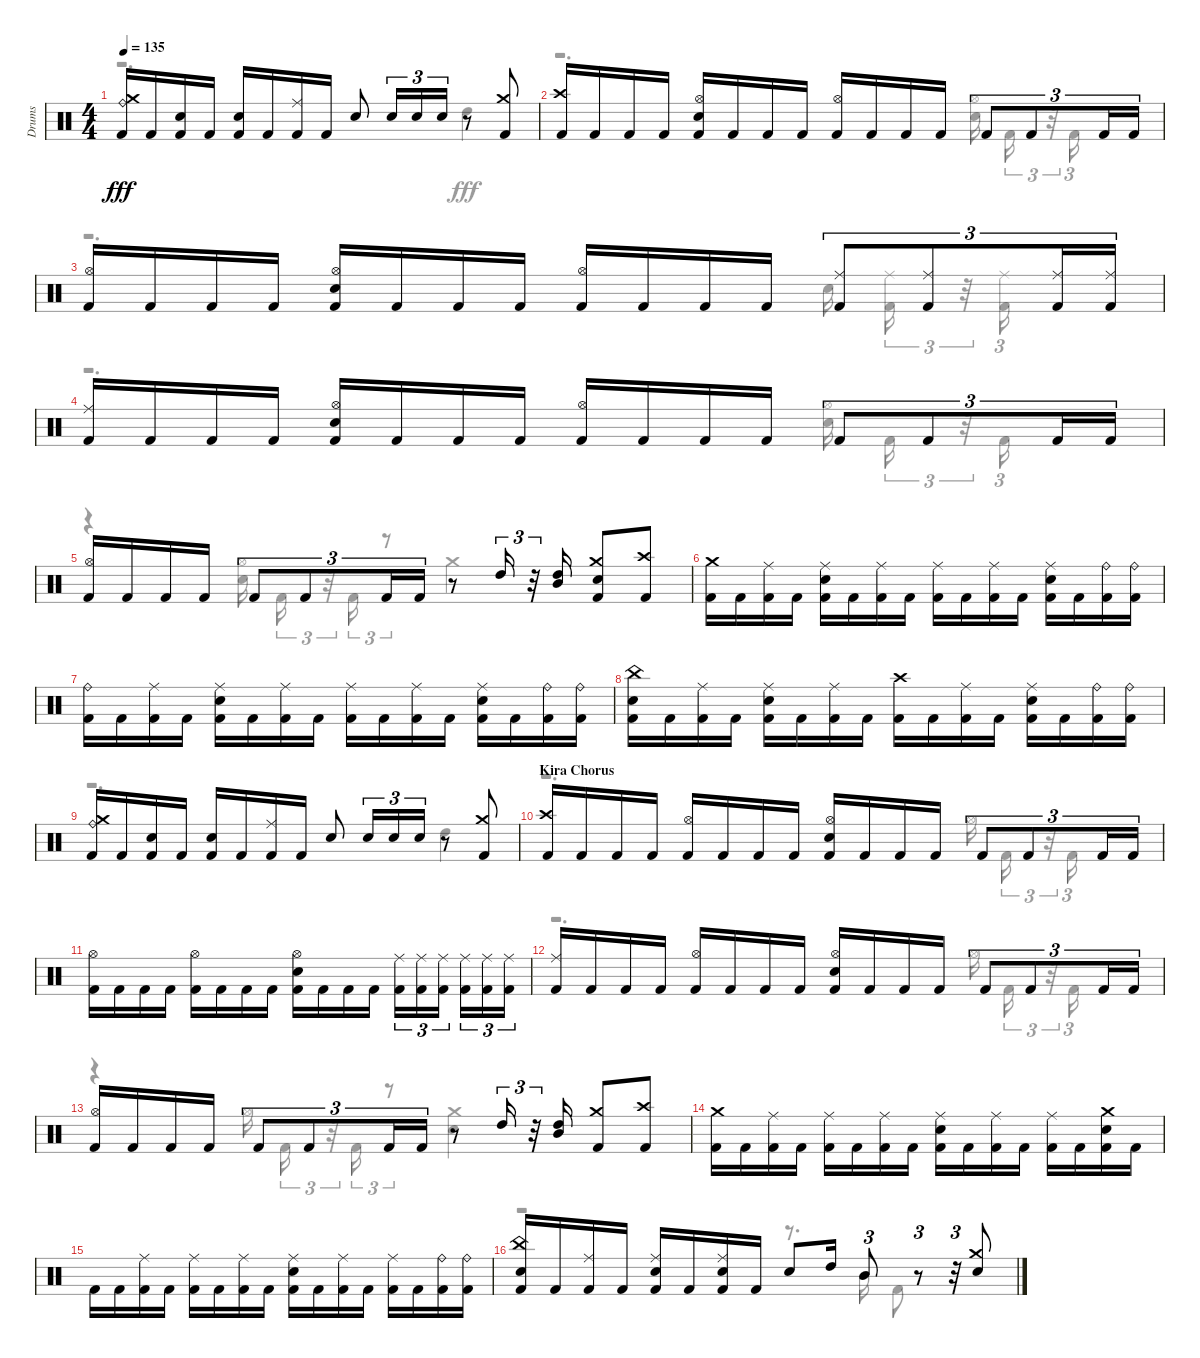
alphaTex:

\track ("Drums" "Drums") {instrument percussion}
\staff {score}
\articulation defaults
\voice
\ts (4 4)
\tempo 135
\clef neutral
\ks aminor
("Kick (hit) 2" "Ride (bell)" "Crash medium (hit)").16{dy fff} "Kick (hit) 2".16 ("Kick (hit) 2" "Snare (hit) 2").16 "Kick (hit) 2".16 ("Kick (hit) 2" "Snare (hit) 2").16 "Kick (hit) 2".16 ("Ride (middle)" "Kick (hit) 2").16 "Kick (hit) 2".16 "Snare (hit) 2".8 "Snare (hit) 2".16{tu (3 2)} "Snare (hit) 2".16{tu (3 2)} "Snare (hit) 2".16{tu (3 2)} r.8 ("Kick (hit) 2" "Crash medium (hit)").8 |
("Crash high (hit)" "Kick (hit) 2").16 "Kick (hit) 2".16 "Kick (hit) 2".16 "Kick (hit) 2".16 ("Hi-Hat (open)" "Snare (hit) 2" "Kick (hit) 2").16 "Kick (hit) 2".16 "Kick (hit) 2".16 "Kick (hit) 2".16 ("Hi-Hat (open)" "Kick (hit) 2").16 "Kick (hit) 2".16 "Kick (hit) 2".16 "Kick (hit) 2".16 "Kick (hit) 2".8{tu (3 2)} "Kick (hit) 2".8{tu (3 2)} "Kick (hit) 2".16{tu (3 2)} "Kick (hit) 2".16{tu (3 2)} |
("Kick (hit) 2" "Hi-Hat (open)").16 "Kick (hit) 2".16 "Kick (hit) 2".16 "Kick (hit) 2".16 ("Kick (hit) 2" "Snare (hit) 2" "Hi-Hat (open)").16 "Kick (hit) 2".16 "Kick (hit) 2".16 "Kick (hit) 2".16 ("Kick (hit) 2" "Hi-Hat (open)").16 "Kick (hit) 2".16 "Kick (hit) 2".16 "Kick (hit) 2".16 ("Ride (middle)" "Kick (hit) 2").8{tu (3 2)} ("Ride (middle)" "Kick (hit) 2").8{tu (3 2)} ("Kick (hit) 2" "Ride (middle)").16{tu (3 2)} ("Kick (hit) 2" "Ride (middle)").16{tu (3 2)} |
("Ride (middle)" "Kick (hit) 2").16 "Kick (hit) 2".16 "Kick (hit) 2".16 "Kick (hit) 2".16 ("Kick (hit) 2" "Snare (hit) 2" "Hi-Hat (open)").16 "Kick (hit) 2".16 "Kick (hit) 2".16 "Kick (hit) 2".16 ("Kick (hit) 2" "Hi-Hat (open)").16 "Kick (hit) 2".16 "Kick (hit) 2".16 "Kick (hit) 2".16 "Kick (hit) 2".8{tu (3 2)} "Kick (hit) 2".8{tu (3 2)} "Kick (hit) 2".16{tu (3 2)} "Kick (hit) 2".16{tu (3 2)} |
("Hi-Hat (open)" "Kick (hit) 2").16 "Kick (hit) 2".16 "Kick (hit) 2".16 "Kick (hit) 2".16 "Kick (hit) 2".8{tu (3 2)} "Kick (hit) 2".8{tu (3 2)} "Kick (hit) 2".16{tu (3 2)} "Kick (hit) 2".16{tu (3 2)} r.8 "High Tom (hit)".16{tu (3 2)} r.32{tu (3 2)} ("High Tom (hit)" "Mid Tom (hit)").16 ("Crash medium (hit)" "Snare (hit) 2" "Kick (hit) 2").8 ("Crash high (hit)" "Kick (hit) 2").8 |
("Kick (hit) 2" "Crash medium (hit)").16 "Kick (hit) 2".16 ("Ride (middle)" "Kick (hit) 2").16 "Kick (hit) 2".16 ("Ride (middle)" "Kick (hit) 2" "Snare (hit) 2").16 "Kick (hit) 2".16 ("Ride (middle)" "Kick (hit) 2").16 "Kick (hit) 2".16 ("Ride (middle)" "Kick (hit) 2").16 "Kick (hit) 2".16 ("Ride (middle)" "Kick (hit) 2").16 "Kick (hit) 2".16 ("Kick (hit) 2" "Ride (middle)" "Snare (hit) 2").16 "Kick (hit) 2".16 ("Ride (bell)" "Kick (hit) 2").16 ("Ride (bell)" "Kick (hit) 2").16 |
("Ride (bell)" "Kick (hit) 2").16 "Kick (hit) 2".16 ("Ride (middle)" "Kick (hit) 2").16 "Kick (hit) 2".16 ("Snare (hit) 2" "Ride (middle)" "Kick (hit) 2").16 "Kick (hit) 2".16 ("Ride (middle)" "Kick (hit) 2").16 "Kick (hit) 2".16 ("Ride (middle)" "Kick (hit) 2").16 "Kick (hit) 2".16 ("Ride (middle)" "Kick (hit) 2").16 "Kick (hit) 2".16 ("Kick (hit) 2" "Snare (hit) 2" "Ride (middle)").16 "Kick (hit) 2".16 ("Kick (hit) 2" "Ride (bell)").16 ("Ride (bell)" "Kick (hit) 2").16 |
("China (hit)" "Snare (hit) 2" "Kick (hit) 2").16 "Kick (hit) 2".16 ("Ride (middle)" "Kick (hit) 2").16 "Kick (hit) 2".16 ("Ride (middle)" "Kick (hit) 2" "Snare (hit) 2").16 "Kick (hit) 2".16 ("Ride (middle)" "Kick (hit) 2").16 "Kick (hit) 2".16 ("Kick (hit) 2" "Crash high (hit)").16 "Kick (hit) 2".16 ("Kick (hit) 2" "Ride (middle)").16 "Kick (hit) 2".16 ("Ride (middle)" "Kick (hit) 2" "Snare (hit) 2").16 "Kick (hit) 2".16 ("Ride (bell)" "Kick (hit) 2").16 ("Kick (hit) 2" "Ride (bell)").16 |
("Crash medium (hit)" "Ride (bell)" "Kick (hit) 2").16 "Kick (hit) 2".16 ("Kick (hit) 2" "Snare (hit) 2").16 "Kick (hit) 2".16 ("Kick (hit) 2" "Snare (hit) 2").16 "Kick (hit) 2".16 ("Kick (hit) 2" "Ride (middle)").16 "Kick (hit) 2".16 "Snare (hit) 2".8 "Snare (hit) 2".16{tu (3 2)} "Snare (hit) 2".16{tu (3 2)} "Snare (hit) 2".16{tu (3 2)} r.8 ("Crash medium (hit)" "Kick (hit) 2").8 |
\section ("" "Kira Chorus")
("Kick (hit) 2" "Crash high (hit)").16 "Kick (hit) 2".16 "Kick (hit) 2".16 "Kick (hit) 2".16 ("Hi-Hat (open)" "Kick (hit) 2").16 "Kick (hit) 2".16 "Kick (hit) 2".16 "Kick (hit) 2".16 ("Hi-Hat (open)" "Kick (hit) 2" "Snare (hit) 2").16 "Kick (hit) 2".16 "Kick (hit) 2".16 "Kick (hit) 2".16 "Kick (hit) 2".8{tu (3 2)} "Kick (hit) 2".8{tu (3 2)} "Kick (hit) 2".16{tu (3 2)} "Kick (hit) 2".16{tu (3 2)} |
("Kick (hit) 2" "Hi-Hat (open)").16 "Kick (hit) 2".16 "Kick (hit) 2".16 "Kick (hit) 2".16 ("Kick (hit) 2" "Hi-Hat (open)").16 "Kick (hit) 2".16 "Kick (hit) 2".16 "Kick (hit) 2".16 ("Snare (hit) 2" "Kick (hit) 2" "Hi-Hat (open)").16 "Kick (hit) 2".16 "Kick (hit) 2".16 "Kick (hit) 2".16 ("Kick (hit) 2" "Ride (middle)").16{tu (3 2)} ("Ride (middle)" "Kick (hit) 2").16{tu (3 2)} ("Kick (hit) 2" "Ride (middle)").16{tu (3 2)} ("Ride (middle)" "Kick (hit) 2").16{tu (3 2)} ("Kick (hit) 2" "Ride (middle)").16{tu (3 2)} ("Kick (hit) 2" "Ride (middle)").16{tu (3 2)} |
("Kick (hit) 2" "Ride (middle)").16 "Kick (hit) 2".16 "Kick (hit) 2".16 "Kick (hit) 2".16 ("Hi-Hat (open)" "Kick (hit) 2").16 "Kick (hit) 2".16 "Kick (hit) 2".16 "Kick (hit) 2".16 ("Hi-Hat (open)" "Kick (hit) 2" "Snare (hit) 2").16 "Kick (hit) 2".16 "Kick (hit) 2".16 "Kick (hit) 2".16 "Kick (hit) 2".8{tu (3 2)} "Kick (hit) 2".8{tu (3 2)} "Kick (hit) 2".16{tu (3 2)} "Kick (hit) 2".16{tu (3 2)} |
("Hi-Hat (open)" "Kick (hit) 2").16 "Kick (hit) 2".16 "Kick (hit) 2".16 "Kick (hit) 2".16 "Kick (hit) 2".8{tu (3 2)} "Kick (hit) 2".8{tu (3 2)} "Kick (hit) 2".16{tu (3 2)} "Kick (hit) 2".16{tu (3 2)} r.8 "High Tom (hit)".16{tu (3 2)} r.32{tu (3 2)} ("Mid Tom (hit)" "High Tom (hit)").16 ("Kick (hit) 2" "Crash medium (hit)").8 ("Crash high (hit)" "Kick (hit) 2").8 |
("Crash medium (hit)" "Kick (hit) 2").16 "Kick (hit) 2".16 ("Kick (hit) 2" "Ride (middle)").16 "Kick (hit) 2".16 ("Ride (middle)" "Kick (hit) 2").16 "Kick (hit) 2".16 ("Ride (middle)" "Kick (hit) 2").16 "Kick (hit) 2".16 ("Ride (middle)" "Kick (hit) 2" "Snare (hit) 2").16 "Kick (hit) 2".16 ("Kick (hit) 2" "Ride (middle)").16 "Kick (hit) 2".16 ("Ride (middle)" "Kick (hit) 2").16 "Kick (hit) 2".16 ("Crash medium (hit)" "Snare (hit) 2" "Kick (hit) 2").16 "Kick (hit) 2".16 |
"Kick (hit) 2".16 "Kick (hit) 2".16 ("Ride (middle)" "Kick (hit) 2").16 "Kick (hit) 2".16 ("Kick (hit) 2" "Ride (middle)").16 "Kick (hit) 2".16 ("Kick (hit) 2" "Ride (middle)").16 "Kick (hit) 2".16 ("Ride (middle)" "Kick (hit) 2" "Snare (hit) 2").16 "Kick (hit) 2".16 ("Ride (middle)" "Kick (hit) 2").16 "Kick (hit) 2".16 ("Kick (hit) 2" "Ride (middle)").16 "Kick (hit) 2".16 ("Ride (bell)" "Kick (hit) 2").16 ("Kick (hit) 2" "Ride (bell)").16 |
("China (hit)" "Kick (hit) 2" "Snare (hit) 2").16 "Kick (hit) 2".16 ("Ride (middle)" "Kick (hit) 2").16 "Kick (hit) 2".16 ("Snare (hit) 2" "Ride (middle)" "Kick (hit) 2").16 "Kick (hit) 2".16 ("Ride (middle)" "Snare (hit) 2" "Kick (hit) 2").16 "Kick (hit) 2".16 "Snare (hit) 2".8 "High Tom (hit)".16 "Mid Tom (hit)".8{tu (3 2)} r.8{tu (3 2)} r.32{tu (3 2)} ("Snare (hit) 2" "Crash medium (hit)").8
\voice
\clef neutral
\ottava regular
\simile none
\ks aminor
r.2{d dy fff} "High Tom (hit)".4 |
r.2{d} ("Snare (hit) 2" "Hi-Hat (open)").16 "Kick (hit) 2".16{tu (3 2)} r.32{tu (3 2)} "Kick (hit) 2".16{tu (3 2)} |
r.2{d} "Snare (hit) 2".16 ("Ride (middle)" "Kick (hit) 2").16{tu (3 2)} r.32{tu (3 2)} ("Kick (hit) 2" "Ride (middle)").16{tu (3 2)} |
r.2{d} ("Hi-Hat (open)" "Snare (hit) 2").16 "Kick (hit) 2".16{tu (3 2)} r.32{tu (3 2)} "Kick (hit) 2".16{tu (3 2)} |
r.4 ("Snare (hit) 2" "Hi-Hat (open)").16 "Kick (hit) 2".16{tu (3 2)} r.32{tu (3 2)} "Kick (hit) 2".16{tu (3 2)} r.8{tu (3 2)} "Crash medium (hit)".4 |
|
|
|
r.2{d} "High Tom (hit)".4 |
r.2{d} "Hi-Hat (open)".16 "Kick (hit) 2".16{tu (3 2)} r.32{tu (3 2)} "Kick (hit) 2".16{tu (3 2)} |
|
r.2{d} "Hi-Hat (open)".16 "Kick (hit) 2".16{tu (3 2)} r.32{tu (3 2)} "Kick (hit) 2".16{tu (3 2)} |
r.4 "Hi-Hat (open)".16 "Kick (hit) 2".16{tu (3 2)} r.32{tu (3 2)} "Kick (hit) 2".16{tu (3 2)} r.8{tu (3 2)} ("Crash medium (hit)" "Snare (hit) 2").4 |
|
|
r.2 r.8{d} "Mid Tom (hit)".16 "Kick (hit) 2".8
